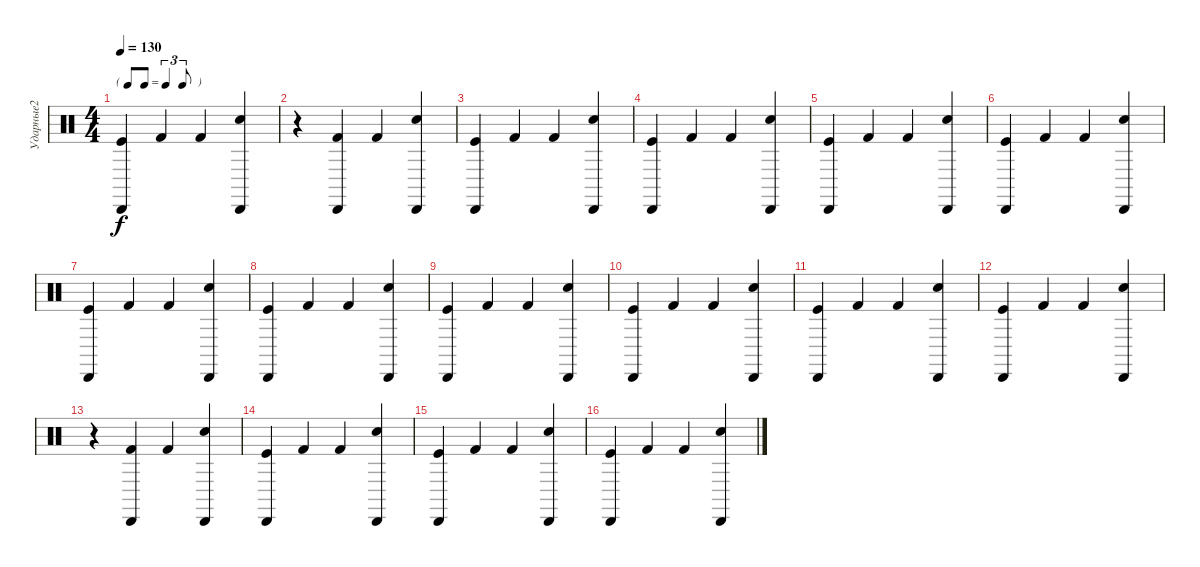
\track ("Ударные2" "Ударные2") {instrument percussion}
\staff {score}
\articulation defaults
\ts (4 4)
\tf triplet8th
\tempo 130
\clef neutral
\ks c
("Cabasa (hit)" "Kick (hit)").4{dy f} "Kick (hit) 2".4 "Kick (hit) 2".4 ("Cabasa (hit)" "Snare (hit) 2").4 |
r.4 ("Cabasa (hit)" "Kick (hit) 2").4 "Kick (hit) 2".4 ("Cabasa (hit)" "Snare (hit) 2").4 |
("Cabasa (hit)" "Kick (hit)").4 "Kick (hit) 2".4 "Kick (hit) 2".4 ("Cabasa (hit)" "Snare (hit) 2").4 |
("Cabasa (hit)" "Kick (hit)").4 "Kick (hit) 2".4 "Kick (hit) 2".4 ("Cabasa (hit)" "Snare (hit) 2").4 |
("Cabasa (hit)" "Kick (hit)").4 "Kick (hit) 2".4 "Kick (hit) 2".4 ("Cabasa (hit)" "Snare (hit) 2").4 |
("Cabasa (hit)" "Kick (hit)").4 "Kick (hit) 2".4 "Kick (hit) 2".4 ("Cabasa (hit)" "Snare (hit) 2").4 |
("Cabasa (hit)" "Kick (hit)").4 "Kick (hit) 2".4 "Kick (hit) 2".4 ("Cabasa (hit)" "Snare (hit) 2").4 |
("Cabasa (hit)" "Kick (hit)").4 "Kick (hit) 2".4 "Kick (hit) 2".4 ("Cabasa (hit)" "Snare (hit) 2").4 |
("Cabasa (hit)" "Kick (hit)").4 "Kick (hit) 2".4 "Kick (hit) 2".4 ("Cabasa (hit)" "Snare (hit) 2").4 |
("Cabasa (hit)" "Kick (hit)").4 "Kick (hit) 2".4 "Kick (hit) 2".4 ("Cabasa (hit)" "Snare (hit) 2").4 |
("Cabasa (hit)" "Kick (hit)").4 "Kick (hit) 2".4 "Kick (hit) 2".4 ("Cabasa (hit)" "Snare (hit) 2").4 |
("Cabasa (hit)" "Kick (hit)").4 "Kick (hit) 2".4 "Kick (hit) 2".4 ("Cabasa (hit)" "Snare (hit) 2").4 |
r.4 ("Cabasa (hit)" "Kick (hit) 2").4 "Kick (hit) 2".4 ("Cabasa (hit)" "Snare (hit) 2").4 |
("Cabasa (hit)" "Kick (hit)").4 "Kick (hit) 2".4 "Kick (hit) 2".4 ("Cabasa (hit)" "Snare (hit) 2").4 |
("Cabasa (hit)" "Kick (hit)").4 "Kick (hit) 2".4 "Kick (hit) 2".4 ("Cabasa (hit)" "Snare (hit) 2").4 |
("Cabasa (hit)" "Kick (hit)").4 "Kick (hit) 2".4 "Kick (hit) 2".4 ("Cabasa (hit)" "Snare (hit) 2").4
